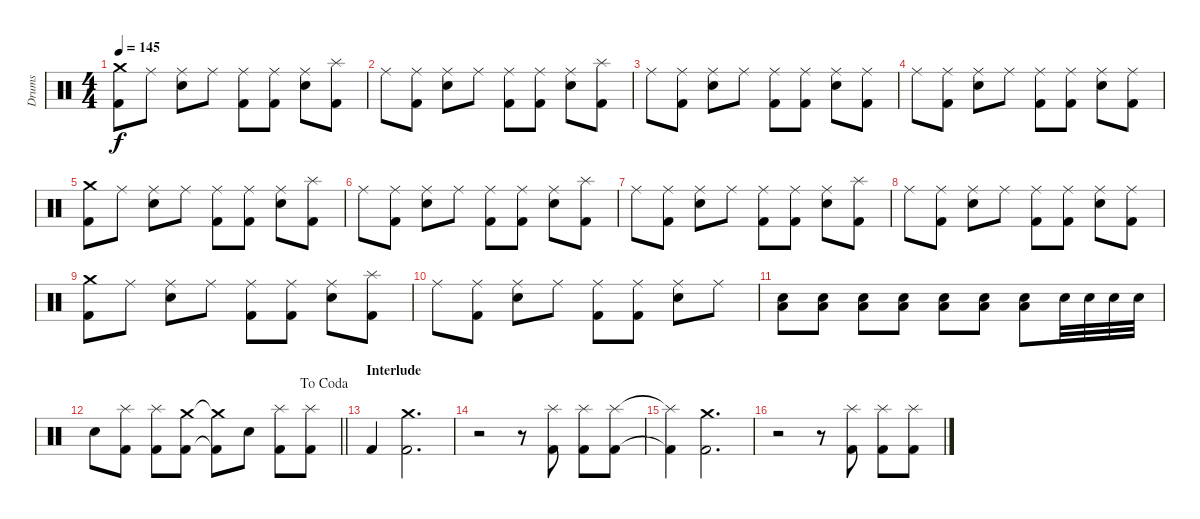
\track ("Drums" "Drums") {instrument percussion}
\staff {score}
\articulation defaults
\ts (4 4)
\tempo 145
\clef neutral
\ks c
("Crash medium (hit)" "Kick (hit) 2").8{dy f} "Ride (middle)".8 ("Ride (middle)" "Snare (hit) 2").8 "Ride (middle)".8 ("Ride (middle)" "Kick (hit) 2").8 ("Ride (middle)" "Kick (hit) 2").8 ("Ride (middle)" "Snare (hit) 2").8 ("Splash (hit)" "Kick (hit) 2").8 |
"Ride (middle)".8 ("Ride (middle)" "Kick (hit) 2").8 ("Ride (middle)" "Snare (hit) 2").8 "Ride (middle)".8 ("Ride (middle)" "Kick (hit) 2").8 ("Ride (middle)" "Kick (hit) 2").8 ("Ride (middle)" "Snare (hit) 2").8 ("Splash (hit)" "Kick (hit) 2").8 |
"Ride (middle)".8 ("Ride (middle)" "Kick (hit) 2").8 ("Ride (middle)" "Snare (hit) 2").8 "Ride (middle)".8 ("Ride (middle)" "Kick (hit) 2").8 ("Ride (middle)" "Kick (hit) 2").8 ("Ride (middle)" "Snare (hit) 2").8 ("Ride (middle)" "Kick (hit) 2").8 |
"Ride (middle)".8 ("Ride (middle)" "Kick (hit) 2").8 ("Ride (middle)" "Snare (hit) 2").8 "Ride (middle)".8 ("Ride (middle)" "Kick (hit) 2").8 ("Ride (middle)" "Kick (hit) 2").8 ("Ride (middle)" "Snare (hit) 2").8 ("Ride (middle)" "Kick (hit) 2").8 |
("Crash medium (hit)" "Kick (hit) 2").8 "Ride (middle)".8 ("Ride (middle)" "Snare (hit) 2").8 "Ride (middle)".8 ("Ride (middle)" "Kick (hit) 2").8 ("Ride (middle)" "Kick (hit) 2").8 ("Ride (middle)" "Snare (hit) 2").8 ("Splash (hit)" "Kick (hit) 2").8 |
"Ride (middle)".8 ("Ride (middle)" "Kick (hit) 2").8 ("Ride (middle)" "Snare (hit) 2").8 "Ride (middle)".8 ("Ride (middle)" "Kick (hit) 2").8 ("Ride (middle)" "Kick (hit) 2").8 ("Ride (middle)" "Snare (hit) 2").8 ("Splash (hit)" "Kick (hit) 2").8 |
"Ride (middle)".8 ("Ride (middle)" "Kick (hit) 2").8 ("Ride (middle)" "Snare (hit) 2").8 "Ride (middle)".8 ("Ride (middle)" "Kick (hit) 2").8 ("Ride (middle)" "Kick (hit) 2").8 ("Ride (middle)" "Snare (hit) 2").8 ("Splash (hit)" "Kick (hit) 2").8 |
"Ride (middle)".8 ("Ride (middle)" "Kick (hit) 2").8 ("Ride (middle)" "Snare (hit) 2").8 "Ride (middle)".8 ("Ride (middle)" "Kick (hit) 2").8 ("Ride (middle)" "Kick (hit) 2").8 ("Ride (middle)" "Snare (hit) 2").8 ("Ride (middle)" "Kick (hit) 2").8 |
("Crash medium (hit)" "Kick (hit) 2").8 "Ride (middle)".8 ("Ride (middle)" "Snare (hit) 2").8 "Ride (middle)".8 ("Ride (middle)" "Kick (hit) 2").8 ("Ride (middle)" "Kick (hit) 2").8 ("Ride (middle)" "Snare (hit) 2").8 ("Splash (hit)" "Kick (hit) 2").8 |
"Ride (middle)".8 ("Ride (middle)" "Kick (hit) 2").8 ("Ride (middle)" "Snare (hit) 2").8 "Ride (middle)".8 ("Ride (middle)" "Kick (hit) 2").8 ("Ride (middle)" "Kick (hit) 2").8 ("Ride (middle)" "Snare (hit) 2").8 "Ride (middle)".8 |
("Snare (hit) 2" "Low Floor Tom (hit)").8 ("Snare (hit) 2" "Low Floor Tom (hit)").8 ("Snare (hit) 2" "Low Floor Tom (hit)").8 ("Snare (hit) 2" "Low Floor Tom (hit)").8 ("Snare (hit) 2" "Low Floor Tom (hit)").8 ("Snare (hit) 2" "Low Floor Tom (hit)").8 ("Snare (hit) 2" "Low Floor Tom (hit)").8 "Snare (hit) 2".32 "Snare (hit) 2".32 "Snare (hit) 2".32 "Snare (hit) 2".32 |
\jump dacoda
\barLineRight lightlight "Snare (hit) 2".8
("Splash (hit)" "Kick (hit) 2").8 ("Splash (hit)" "Kick (hit) 2").8 ("Crash medium (hit)" "Kick (hit) 2").8 ("Crash medium (hit)"{t} "Kick (hit) 2"{t}).8 "Snare (hit) 2".8 ("Splash (hit)" "Kick (hit) 2").8 ("Splash (hit)" "Kick (hit) 2").8 |
\section ("" "Interlude")
"Kick (hit) 2".4 ("Crash medium (hit)" "Kick (hit) 2").2{d} |
r.2 r.8 ("Splash (hit)" "Kick (hit) 2").8 ("Splash (hit)" "Kick (hit) 2").8 ("Splash (hit)" "Kick (hit) 2").8 |
("Splash (hit)"{t} "Kick (hit) 2"{t}).4 ("Crash medium (hit)" "Kick (hit) 2").2{d} |
r.2 r.8 ("Splash (hit)" "Kick (hit) 2").8 ("Splash (hit)" "Kick (hit) 2").8 ("Splash (hit)" "Kick (hit) 2").8
